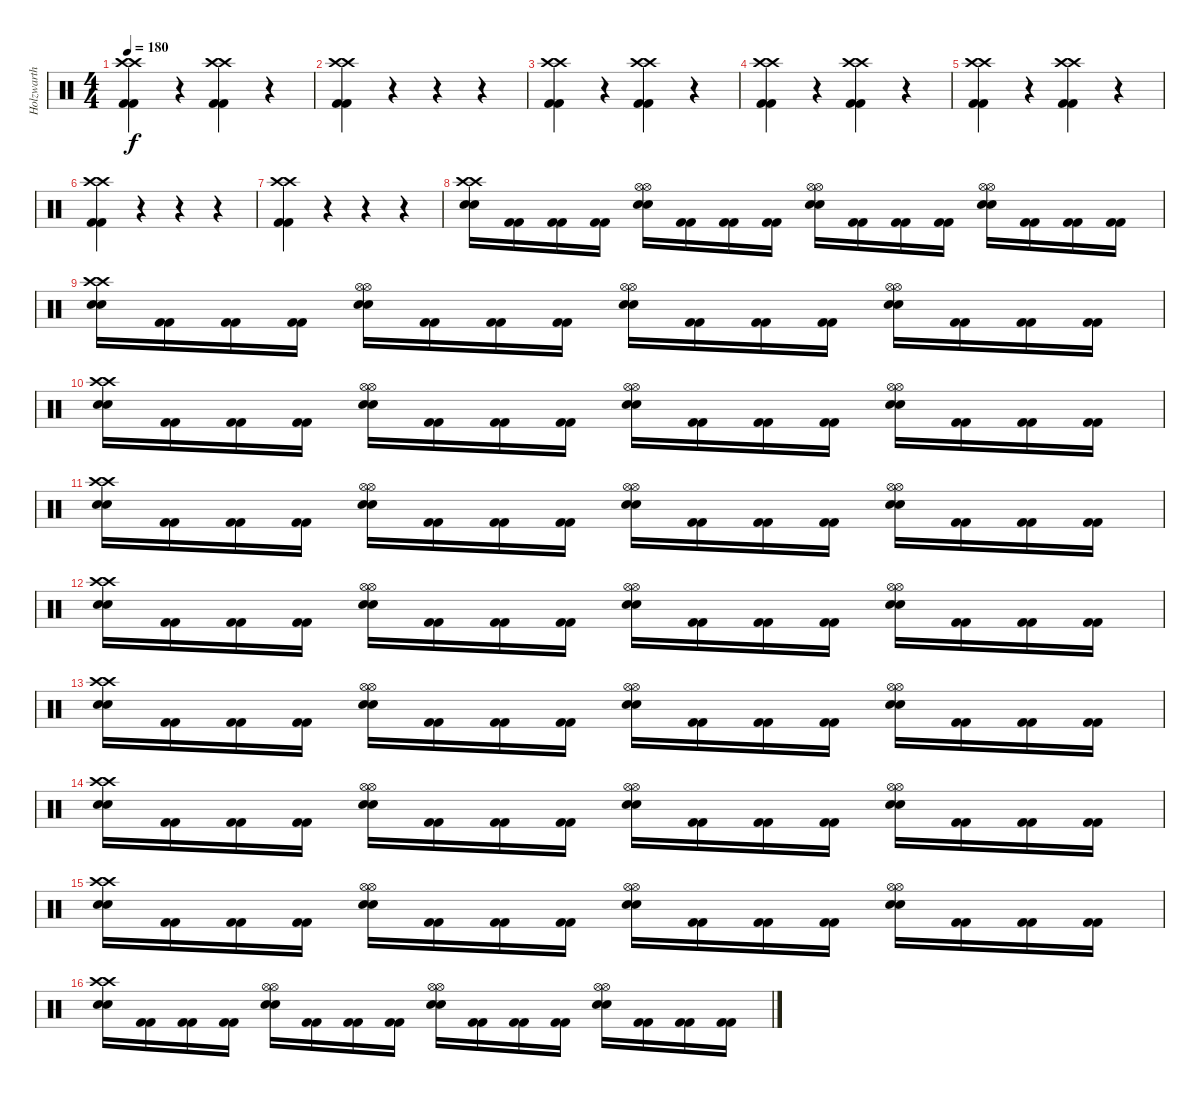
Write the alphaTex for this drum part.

\track ("Holzwarth" "Holzwarth") {instrument percussion}
\staff {score}
\articulation defaults
\ts (4 4)
\tempo 180
\clef neutral
\ks c
("Kick (hit) 2" "Kick (hit) 2" "Crash high (hit)" "Crash high (hit)").4{dy f} r.4 ("Kick (hit) 2" "Kick (hit) 2" "Crash high (hit)" "Crash high (hit)").4 r.4 |
("Kick (hit) 2" "Kick (hit) 2" "Crash high (hit)" "Crash high (hit)").4 r.4 r.4 r.4 |
("Kick (hit) 2" "Kick (hit) 2" "Crash high (hit)" "Crash high (hit)").4 r.4 ("Kick (hit) 2" "Kick (hit) 2" "Crash high (hit)" "Crash high (hit)").4 r.4 |
("Kick (hit) 2" "Kick (hit) 2" "Crash high (hit)" "Crash high (hit)").4 r.4 ("Kick (hit) 2" "Kick (hit) 2" "Crash high (hit)" "Crash high (hit)").4 r.4 |
("Kick (hit) 2" "Kick (hit) 2" "Crash high (hit)" "Crash high (hit)").4 r.4 ("Kick (hit) 2" "Kick (hit) 2" "Crash high (hit)" "Crash high (hit)").4 r.4 |
("Kick (hit) 2" "Kick (hit) 2" "Crash high (hit)" "Crash high (hit)").4 r.4 r.4 r.4 |
("Kick (hit) 2" "Kick (hit) 2" "Crash high (hit)" "Crash high (hit)").4 r.4 r.4 r.4 |
("Snare (hit) 2" "Snare (hit) 2" "Crash high (hit)" "Crash high (hit)").16 ("Kick (hit) 2" "Kick (hit) 2").16 ("Kick (hit) 2" "Kick (hit) 2").16 ("Kick (hit) 2" "Kick (hit) 2").16 ("Snare (hit) 2" "Snare (hit) 2" "Hi-Hat (open)" "Hi-Hat (open)").16 ("Kick (hit) 2" "Kick (hit) 2").16 ("Kick (hit) 2" "Kick (hit) 2").16 ("Kick (hit) 2" "Kick (hit) 2").16 ("Snare (hit) 2" "Snare (hit) 2" "Hi-Hat (open)" "Hi-Hat (open)").16 ("Kick (hit) 2" "Kick (hit) 2").16 ("Kick (hit) 2" "Kick (hit) 2").16 ("Kick (hit) 2" "Kick (hit) 2").16 ("Snare (hit) 2" "Snare (hit) 2" "Hi-Hat (open)" "Hi-Hat (open)").16 ("Kick (hit) 2" "Kick (hit) 2").16 ("Kick (hit) 2" "Kick (hit) 2").16 ("Kick (hit) 2" "Kick (hit) 2").16 |
("Snare (hit) 2" "Snare (hit) 2" "Crash high (hit)" "Crash high (hit)").16 ("Kick (hit) 2" "Kick (hit) 2").16 ("Kick (hit) 2" "Kick (hit) 2").16 ("Kick (hit) 2" "Kick (hit) 2").16 ("Snare (hit) 2" "Snare (hit) 2" "Hi-Hat (open)" "Hi-Hat (open)").16 ("Kick (hit) 2" "Kick (hit) 2").16 ("Kick (hit) 2" "Kick (hit) 2").16 ("Kick (hit) 2" "Kick (hit) 2").16 ("Snare (hit) 2" "Snare (hit) 2" "Hi-Hat (open)" "Hi-Hat (open)").16 ("Kick (hit) 2" "Kick (hit) 2").16 ("Kick (hit) 2" "Kick (hit) 2").16 ("Kick (hit) 2" "Kick (hit) 2").16 ("Snare (hit) 2" "Snare (hit) 2" "Hi-Hat (open)" "Hi-Hat (open)").16 ("Kick (hit) 2" "Kick (hit) 2").16 ("Kick (hit) 2" "Kick (hit) 2").16 ("Kick (hit) 2" "Kick (hit) 2").16 |
("Snare (hit) 2" "Snare (hit) 2" "Crash high (hit)" "Crash high (hit)").16 ("Kick (hit) 2" "Kick (hit) 2").16 ("Kick (hit) 2" "Kick (hit) 2").16 ("Kick (hit) 2" "Kick (hit) 2").16 ("Snare (hit) 2" "Snare (hit) 2" "Hi-Hat (open)" "Hi-Hat (open)").16 ("Kick (hit) 2" "Kick (hit) 2").16 ("Kick (hit) 2" "Kick (hit) 2").16 ("Kick (hit) 2" "Kick (hit) 2").16 ("Snare (hit) 2" "Snare (hit) 2" "Hi-Hat (open)" "Hi-Hat (open)").16 ("Kick (hit) 2" "Kick (hit) 2").16 ("Kick (hit) 2" "Kick (hit) 2").16 ("Kick (hit) 2" "Kick (hit) 2").16 ("Snare (hit) 2" "Snare (hit) 2" "Hi-Hat (open)" "Hi-Hat (open)").16 ("Kick (hit) 2" "Kick (hit) 2").16 ("Kick (hit) 2" "Kick (hit) 2").16 ("Kick (hit) 2" "Kick (hit) 2").16 |
("Snare (hit) 2" "Snare (hit) 2" "Crash high (hit)" "Crash high (hit)").16 ("Kick (hit) 2" "Kick (hit) 2").16 ("Kick (hit) 2" "Kick (hit) 2").16 ("Kick (hit) 2" "Kick (hit) 2").16 ("Snare (hit) 2" "Snare (hit) 2" "Hi-Hat (open)" "Hi-Hat (open)").16 ("Kick (hit) 2" "Kick (hit) 2").16 ("Kick (hit) 2" "Kick (hit) 2").16 ("Kick (hit) 2" "Kick (hit) 2").16 ("Snare (hit) 2" "Snare (hit) 2" "Hi-Hat (open)" "Hi-Hat (open)").16 ("Kick (hit) 2" "Kick (hit) 2").16 ("Kick (hit) 2" "Kick (hit) 2").16 ("Kick (hit) 2" "Kick (hit) 2").16 ("Snare (hit) 2" "Snare (hit) 2" "Hi-Hat (open)" "Hi-Hat (open)").16 ("Kick (hit) 2" "Kick (hit) 2").16 ("Kick (hit) 2" "Kick (hit) 2").16 ("Kick (hit) 2" "Kick (hit) 2").16 |
("Snare (hit) 2" "Snare (hit) 2" "Crash high (hit)" "Crash high (hit)").16 ("Kick (hit) 2" "Kick (hit) 2").16 ("Kick (hit) 2" "Kick (hit) 2").16 ("Kick (hit) 2" "Kick (hit) 2").16 ("Snare (hit) 2" "Snare (hit) 2" "Hi-Hat (open)" "Hi-Hat (open)").16 ("Kick (hit) 2" "Kick (hit) 2").16 ("Kick (hit) 2" "Kick (hit) 2").16 ("Kick (hit) 2" "Kick (hit) 2").16 ("Snare (hit) 2" "Snare (hit) 2" "Hi-Hat (open)" "Hi-Hat (open)").16 ("Kick (hit) 2" "Kick (hit) 2").16 ("Kick (hit) 2" "Kick (hit) 2").16 ("Kick (hit) 2" "Kick (hit) 2").16 ("Snare (hit) 2" "Snare (hit) 2" "Hi-Hat (open)" "Hi-Hat (open)").16 ("Kick (hit) 2" "Kick (hit) 2").16 ("Kick (hit) 2" "Kick (hit) 2").16 ("Kick (hit) 2" "Kick (hit) 2").16 |
("Snare (hit) 2" "Snare (hit) 2" "Crash high (hit)" "Crash high (hit)").16 ("Kick (hit) 2" "Kick (hit) 2").16 ("Kick (hit) 2" "Kick (hit) 2").16 ("Kick (hit) 2" "Kick (hit) 2").16 ("Snare (hit) 2" "Snare (hit) 2" "Hi-Hat (open)" "Hi-Hat (open)").16 ("Kick (hit) 2" "Kick (hit) 2").16 ("Kick (hit) 2" "Kick (hit) 2").16 ("Kick (hit) 2" "Kick (hit) 2").16 ("Snare (hit) 2" "Snare (hit) 2" "Hi-Hat (open)" "Hi-Hat (open)").16 ("Kick (hit) 2" "Kick (hit) 2").16 ("Kick (hit) 2" "Kick (hit) 2").16 ("Kick (hit) 2" "Kick (hit) 2").16 ("Snare (hit) 2" "Snare (hit) 2" "Hi-Hat (open)" "Hi-Hat (open)").16 ("Kick (hit) 2" "Kick (hit) 2").16 ("Kick (hit) 2" "Kick (hit) 2").16 ("Kick (hit) 2" "Kick (hit) 2").16 |
("Snare (hit) 2" "Snare (hit) 2" "Crash high (hit)" "Crash high (hit)").16 ("Kick (hit) 2" "Kick (hit) 2").16 ("Kick (hit) 2" "Kick (hit) 2").16 ("Kick (hit) 2" "Kick (hit) 2").16 ("Snare (hit) 2" "Snare (hit) 2" "Hi-Hat (open)" "Hi-Hat (open)").16 ("Kick (hit) 2" "Kick (hit) 2").16 ("Kick (hit) 2" "Kick (hit) 2").16 ("Kick (hit) 2" "Kick (hit) 2").16 ("Snare (hit) 2" "Snare (hit) 2" "Hi-Hat (open)" "Hi-Hat (open)").16 ("Kick (hit) 2" "Kick (hit) 2").16 ("Kick (hit) 2" "Kick (hit) 2").16 ("Kick (hit) 2" "Kick (hit) 2").16 ("Snare (hit) 2" "Snare (hit) 2" "Hi-Hat (open)" "Hi-Hat (open)").16 ("Kick (hit) 2" "Kick (hit) 2").16 ("Kick (hit) 2" "Kick (hit) 2").16 ("Kick (hit) 2" "Kick (hit) 2").16 |
("Snare (hit) 2" "Snare (hit) 2" "Crash high (hit)" "Crash high (hit)").16 ("Kick (hit) 2" "Kick (hit) 2").16 ("Kick (hit) 2" "Kick (hit) 2").16 ("Kick (hit) 2" "Kick (hit) 2").16 ("Snare (hit) 2" "Snare (hit) 2" "Hi-Hat (open)" "Hi-Hat (open)").16 ("Kick (hit) 2" "Kick (hit) 2").16 ("Kick (hit) 2" "Kick (hit) 2").16 ("Kick (hit) 2" "Kick (hit) 2").16 ("Snare (hit) 2" "Snare (hit) 2" "Hi-Hat (open)" "Hi-Hat (open)").16 ("Kick (hit) 2" "Kick (hit) 2").16 ("Kick (hit) 2" "Kick (hit) 2").16 ("Kick (hit) 2" "Kick (hit) 2").16 ("Snare (hit) 2" "Snare (hit) 2" "Hi-Hat (open)" "Hi-Hat (open)").16 ("Kick (hit) 2" "Kick (hit) 2").16 ("Kick (hit) 2" "Kick (hit) 2").16 ("Kick (hit) 2" "Kick (hit) 2").16 |
("Snare (hit) 2" "Snare (hit) 2" "Crash high (hit)" "Crash high (hit)").16 ("Kick (hit) 2" "Kick (hit) 2").16 ("Kick (hit) 2" "Kick (hit) 2").16 ("Kick (hit) 2" "Kick (hit) 2").16 ("Snare (hit) 2" "Snare (hit) 2" "Hi-Hat (open)" "Hi-Hat (open)").16 ("Kick (hit) 2" "Kick (hit) 2").16 ("Kick (hit) 2" "Kick (hit) 2").16 ("Kick (hit) 2" "Kick (hit) 2").16 ("Snare (hit) 2" "Snare (hit) 2" "Hi-Hat (open)" "Hi-Hat (open)").16 ("Kick (hit) 2" "Kick (hit) 2").16 ("Kick (hit) 2" "Kick (hit) 2").16 ("Kick (hit) 2" "Kick (hit) 2").16 ("Snare (hit) 2" "Snare (hit) 2" "Hi-Hat (open)" "Hi-Hat (open)").16 ("Kick (hit) 2" "Kick (hit) 2").16 ("Kick (hit) 2" "Kick (hit) 2").16 ("Kick (hit) 2" "Kick (hit) 2").16
